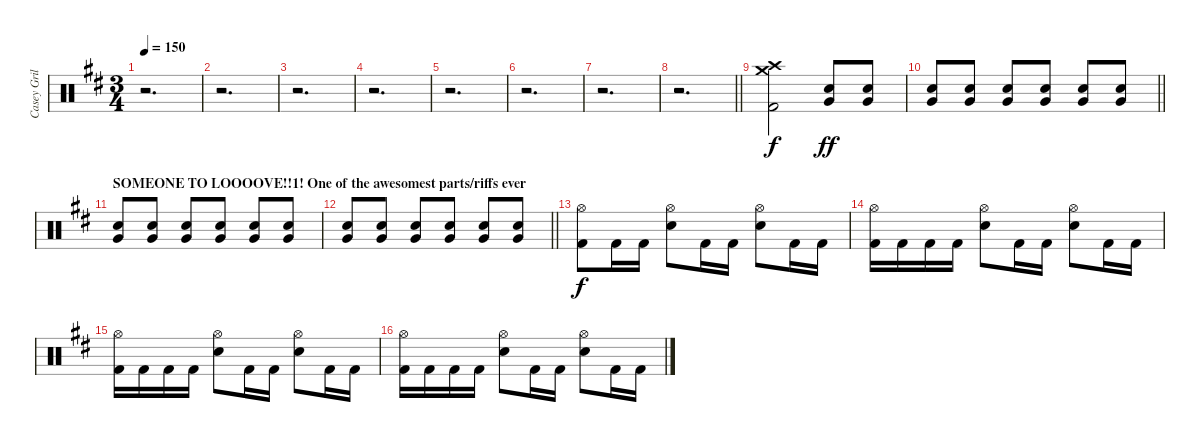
\track ("Casey Grillo" "Casey Gril") {instrument percussion}
\staff {score}
\articulation defaults
\ts (3 4)
\tempo 150
\clef neutral
\ks bminor
r.2{d dy f} |
r.2{d} |
r.2{d} |
r.2{d} |
r.2{d} |
r.2{d} |
r.2{d} |
\barLineRight lightlight
r.2{d} |
("Crash high (hit)" "Crash medium (hit)" "Kick (hit) 2").2 ("Electric Snare (hit)" "Very Low Tom (hit)").8{dy ff} ("Electric Snare (hit)" "Very Low Tom (hit)").8 |
\barLineRight lightlight
("Electric Snare (hit)" "Very Low Tom (hit)").8 ("Electric Snare (hit)" "Very Low Tom (hit)").8 ("Electric Snare (hit)" "Very Low Tom (hit)").8 ("Electric Snare (hit)" "Very Low Tom (hit)").8 ("Electric Snare (hit)" "Very Low Tom (hit)").8 ("Electric Snare (hit)" "Very Low Tom (hit)").8 |
\section ("" "SOMEONE TO LOOOOVE!!1! One of the awesomest parts/riffs ever")
("Electric Snare (hit)" "Very Low Tom (hit)").8 ("Electric Snare (hit)" "Very Low Tom (hit)").8 ("Electric Snare (hit)" "Very Low Tom (hit)").8 ("Electric Snare (hit)" "Very Low Tom (hit)").8 ("Electric Snare (hit)" "Very Low Tom (hit)").8 ("Electric Snare (hit)" "Very Low Tom (hit)").8 |
\barLineRight lightlight
("Electric Snare (hit)" "Very Low Tom (hit)").8 ("Electric Snare (hit)" "Very Low Tom (hit)").8 ("Electric Snare (hit)" "Very Low Tom (hit)").8 ("Electric Snare (hit)" "Very Low Tom (hit)").8 ("Electric Snare (hit)" "Very Low Tom (hit)").8 ("Electric Snare (hit)" "Very Low Tom (hit)").8 |
("Hi-Hat (open)" "Kick (hit) 2").8{dy f} "Kick (hit) 2".16 "Kick (hit) 2".16 ("Hi-Hat (open)" "Electric Snare (hit)").8 "Kick (hit) 2".16 "Kick (hit) 2".16 ("Hi-Hat (open)" "Electric Snare (hit)").8 "Kick (hit) 2".16 "Kick (hit) 2".16 |
("Hi-Hat (open)" "Kick (hit) 2").16 "Kick (hit) 2".16 "Kick (hit) 2".16 "Kick (hit) 2".16 ("Hi-Hat (open)" "Electric Snare (hit)").8 "Kick (hit) 2".16 "Kick (hit) 2".16 ("Hi-Hat (open)" "Electric Snare (hit)").8 "Kick (hit) 2".16 "Kick (hit) 2".16 |
("Hi-Hat (open)" "Kick (hit) 2").16 "Kick (hit) 2".16 "Kick (hit) 2".16 "Kick (hit) 2".16 ("Hi-Hat (open)" "Electric Snare (hit)").8 "Kick (hit) 2".16 "Kick (hit) 2".16 ("Hi-Hat (open)" "Electric Snare (hit)").8 "Kick (hit) 2".16 "Kick (hit) 2".16 |
("Hi-Hat (open)" "Kick (hit) 2").16 "Kick (hit) 2".16 "Kick (hit) 2".16 "Kick (hit) 2".16 ("Hi-Hat (open)" "Electric Snare (hit)").8 "Kick (hit) 2".16 "Kick (hit) 2".16 ("Hi-Hat (open)" "Electric Snare (hit)").8 "Kick (hit) 2".16 "Kick (hit) 2".16
